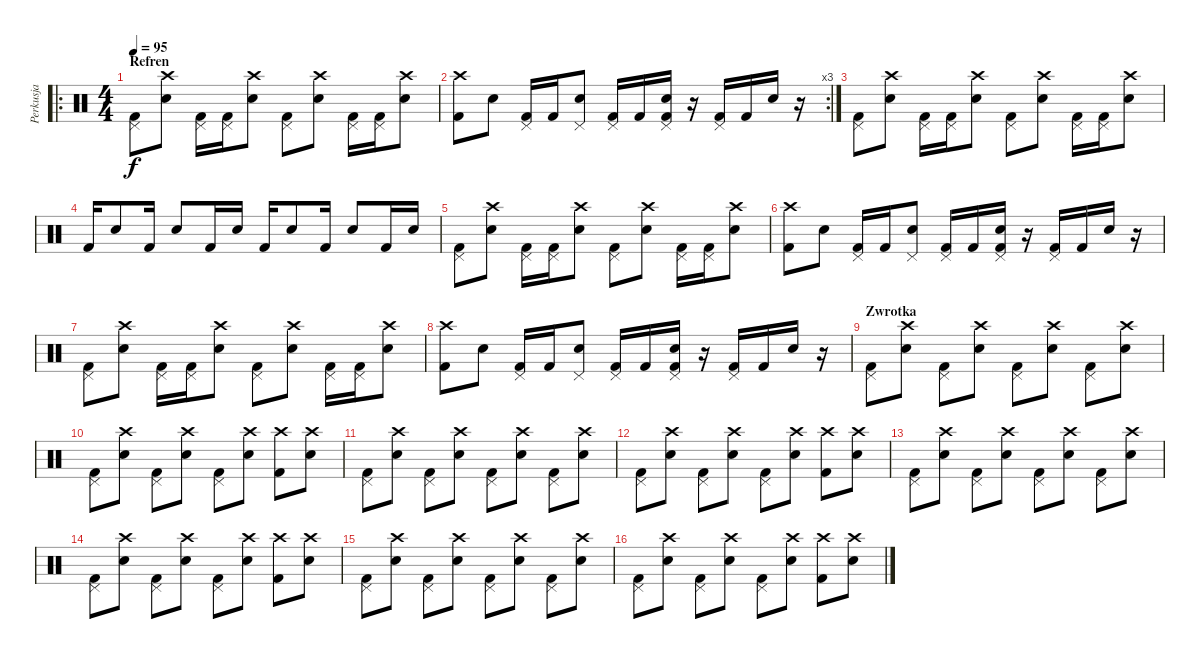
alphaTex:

\track ("Perkusja" "Perkusja") {instrument percussion}
\staff {score}
\articulation defaults
\ro
\ts (4 4)
\section ("" "Refren")
\tempo 95
\clef neutral
\ks c
("Pedal Hi-Hat (hit)" "Kick (hit) 2").8{dy f} ("Crash high (hit)" "Snare (hit) 2").8 ("Pedal Hi-Hat (hit)" "Kick (hit) 2").16 ("Pedal Hi-Hat (hit)" "Kick (hit) 2").16 ("Crash high (hit)" "Snare (hit) 2").8 ("Pedal Hi-Hat (hit)" "Kick (hit) 2").8 ("Crash high (hit)" "Snare (hit) 2").8 ("Pedal Hi-Hat (hit)" "Kick (hit) 2").16 ("Pedal Hi-Hat (hit)" "Kick (hit) 2").16 ("Crash high (hit)" "Snare (hit) 2").8 |
\rc 3
("Crash high (hit)" "Kick (hit) 2").8 "Snare (hit) 2".8 ("Pedal Hi-Hat (hit)" "Kick (hit) 2").16 "Kick (hit) 2".16 ("Pedal Hi-Hat (hit)" "Snare (hit) 2").8 ("Pedal Hi-Hat (hit)" "Kick (hit) 2").16 "Kick (hit) 2".16 ("Pedal Hi-Hat (hit)" "Snare (hit) 2" "Kick (hit) 2").16 r.16 ("Pedal Hi-Hat (hit)" "Kick (hit) 2").16 "Kick (hit) 2".16 "Snare (hit) 2".16 r.16 |
("Pedal Hi-Hat (hit)" "Kick (hit) 2").8 ("Crash high (hit)" "Snare (hit) 2").8 ("Pedal Hi-Hat (hit)" "Kick (hit) 2").16 ("Pedal Hi-Hat (hit)" "Kick (hit) 2").16 ("Crash high (hit)" "Snare (hit) 2").8 ("Pedal Hi-Hat (hit)" "Kick (hit) 2").8 ("Crash high (hit)" "Snare (hit) 2").8 ("Pedal Hi-Hat (hit)" "Kick (hit) 2").16 ("Pedal Hi-Hat (hit)" "Kick (hit) 2").16 ("Crash high (hit)" "Snare (hit) 2").8 |
"Kick (hit) 2".16 "Snare (hit) 2".8 "Kick (hit) 2".16 "Snare (hit) 2".8 "Kick (hit) 2".16 "Snare (hit) 2".16 "Kick (hit) 2".16 "Snare (hit) 2".8 "Kick (hit) 2".16 "Snare (hit) 2".8 "Kick (hit) 2".16 "Snare (hit) 2".16 |
("Pedal Hi-Hat (hit)" "Kick (hit) 2").8 ("Crash high (hit)" "Snare (hit) 2").8 ("Pedal Hi-Hat (hit)" "Kick (hit) 2").16 ("Pedal Hi-Hat (hit)" "Kick (hit) 2").16 ("Crash high (hit)" "Snare (hit) 2").8 ("Pedal Hi-Hat (hit)" "Kick (hit) 2").8 ("Crash high (hit)" "Snare (hit) 2").8 ("Pedal Hi-Hat (hit)" "Kick (hit) 2").16 ("Pedal Hi-Hat (hit)" "Kick (hit) 2").16 ("Crash high (hit)" "Snare (hit) 2").8 |
("Crash high (hit)" "Kick (hit) 2").8 "Snare (hit) 2".8 ("Pedal Hi-Hat (hit)" "Kick (hit) 2").16 "Kick (hit) 2".16 ("Pedal Hi-Hat (hit)" "Snare (hit) 2").8 ("Pedal Hi-Hat (hit)" "Kick (hit) 2").16 "Kick (hit) 2".16 ("Pedal Hi-Hat (hit)" "Snare (hit) 2" "Kick (hit) 2").16 r.16 ("Pedal Hi-Hat (hit)" "Kick (hit) 2").16 "Kick (hit) 2".16 "Snare (hit) 2".16 r.16 |
("Pedal Hi-Hat (hit)" "Kick (hit) 2").8 ("Crash high (hit)" "Snare (hit) 2").8 ("Pedal Hi-Hat (hit)" "Kick (hit) 2").16 ("Pedal Hi-Hat (hit)" "Kick (hit) 2").16 ("Crash high (hit)" "Snare (hit) 2").8 ("Pedal Hi-Hat (hit)" "Kick (hit) 2").8 ("Crash high (hit)" "Snare (hit) 2").8 ("Pedal Hi-Hat (hit)" "Kick (hit) 2").16 ("Pedal Hi-Hat (hit)" "Kick (hit) 2").16 ("Crash high (hit)" "Snare (hit) 2").8 |
("Crash high (hit)" "Kick (hit) 2").8 "Snare (hit) 2".8 ("Pedal Hi-Hat (hit)" "Kick (hit) 2").16 "Kick (hit) 2".16 ("Pedal Hi-Hat (hit)" "Snare (hit) 2").8 ("Pedal Hi-Hat (hit)" "Kick (hit) 2").16 "Kick (hit) 2".16 ("Pedal Hi-Hat (hit)" "Snare (hit) 2" "Kick (hit) 2").16 r.16 ("Pedal Hi-Hat (hit)" "Kick (hit) 2").16 "Kick (hit) 2".16 "Snare (hit) 2".16 r.16 |
\section ("" "Zwrotka")
("Pedal Hi-Hat (hit)" "Kick (hit) 2").8 ("Crash high (hit)" "Snare (hit) 2").8 ("Pedal Hi-Hat (hit)" "Kick (hit) 2").8 ("Crash high (hit)" "Snare (hit) 2").8 ("Pedal Hi-Hat (hit)" "Kick (hit) 2").8 ("Crash high (hit)" "Snare (hit) 2").8 ("Pedal Hi-Hat (hit)" "Kick (hit) 2").8 ("Crash high (hit)" "Snare (hit) 2").8 |
("Pedal Hi-Hat (hit)" "Kick (hit) 2").8 ("Crash high (hit)" "Snare (hit) 2").8 ("Pedal Hi-Hat (hit)" "Kick (hit) 2").8 ("Crash high (hit)" "Snare (hit) 2").8 ("Pedal Hi-Hat (hit)" "Kick (hit) 2").8 ("Crash high (hit)" "Snare (hit) 2").8 ("Crash high (hit)" "Kick (hit) 2").8 ("Crash high (hit)" "Snare (hit) 2").8 |
("Pedal Hi-Hat (hit)" "Kick (hit) 2").8 ("Crash high (hit)" "Snare (hit) 2").8 ("Pedal Hi-Hat (hit)" "Kick (hit) 2").8 ("Crash high (hit)" "Snare (hit) 2").8 ("Pedal Hi-Hat (hit)" "Kick (hit) 2").8 ("Crash high (hit)" "Snare (hit) 2").8 ("Pedal Hi-Hat (hit)" "Kick (hit) 2").8 ("Crash high (hit)" "Snare (hit) 2").8 |
("Pedal Hi-Hat (hit)" "Kick (hit) 2").8 ("Crash high (hit)" "Snare (hit) 2").8 ("Pedal Hi-Hat (hit)" "Kick (hit) 2").8 ("Crash high (hit)" "Snare (hit) 2").8 ("Pedal Hi-Hat (hit)" "Kick (hit) 2").8 ("Crash high (hit)" "Snare (hit) 2").8 ("Crash high (hit)" "Kick (hit) 2").8 ("Crash high (hit)" "Snare (hit) 2").8 |
("Pedal Hi-Hat (hit)" "Kick (hit) 2").8 ("Crash high (hit)" "Snare (hit) 2").8 ("Pedal Hi-Hat (hit)" "Kick (hit) 2").8 ("Crash high (hit)" "Snare (hit) 2").8 ("Pedal Hi-Hat (hit)" "Kick (hit) 2").8 ("Crash high (hit)" "Snare (hit) 2").8 ("Pedal Hi-Hat (hit)" "Kick (hit) 2").8 ("Crash high (hit)" "Snare (hit) 2").8 |
("Pedal Hi-Hat (hit)" "Kick (hit) 2").8 ("Crash high (hit)" "Snare (hit) 2").8 ("Pedal Hi-Hat (hit)" "Kick (hit) 2").8 ("Crash high (hit)" "Snare (hit) 2").8 ("Pedal Hi-Hat (hit)" "Kick (hit) 2").8 ("Crash high (hit)" "Snare (hit) 2").8 ("Crash high (hit)" "Kick (hit) 2").8 ("Crash high (hit)" "Snare (hit) 2").8 |
("Pedal Hi-Hat (hit)" "Kick (hit) 2").8 ("Crash high (hit)" "Snare (hit) 2").8 ("Pedal Hi-Hat (hit)" "Kick (hit) 2").8 ("Crash high (hit)" "Snare (hit) 2").8 ("Pedal Hi-Hat (hit)" "Kick (hit) 2").8 ("Crash high (hit)" "Snare (hit) 2").8 ("Pedal Hi-Hat (hit)" "Kick (hit) 2").8 ("Crash high (hit)" "Snare (hit) 2").8 |
("Pedal Hi-Hat (hit)" "Kick (hit) 2").8 ("Crash high (hit)" "Snare (hit) 2").8 ("Pedal Hi-Hat (hit)" "Kick (hit) 2").8 ("Crash high (hit)" "Snare (hit) 2").8 ("Pedal Hi-Hat (hit)" "Kick (hit) 2").8 ("Crash high (hit)" "Snare (hit) 2").8 ("Crash high (hit)" "Kick (hit) 2").8 ("Crash high (hit)" "Snare (hit) 2").8
